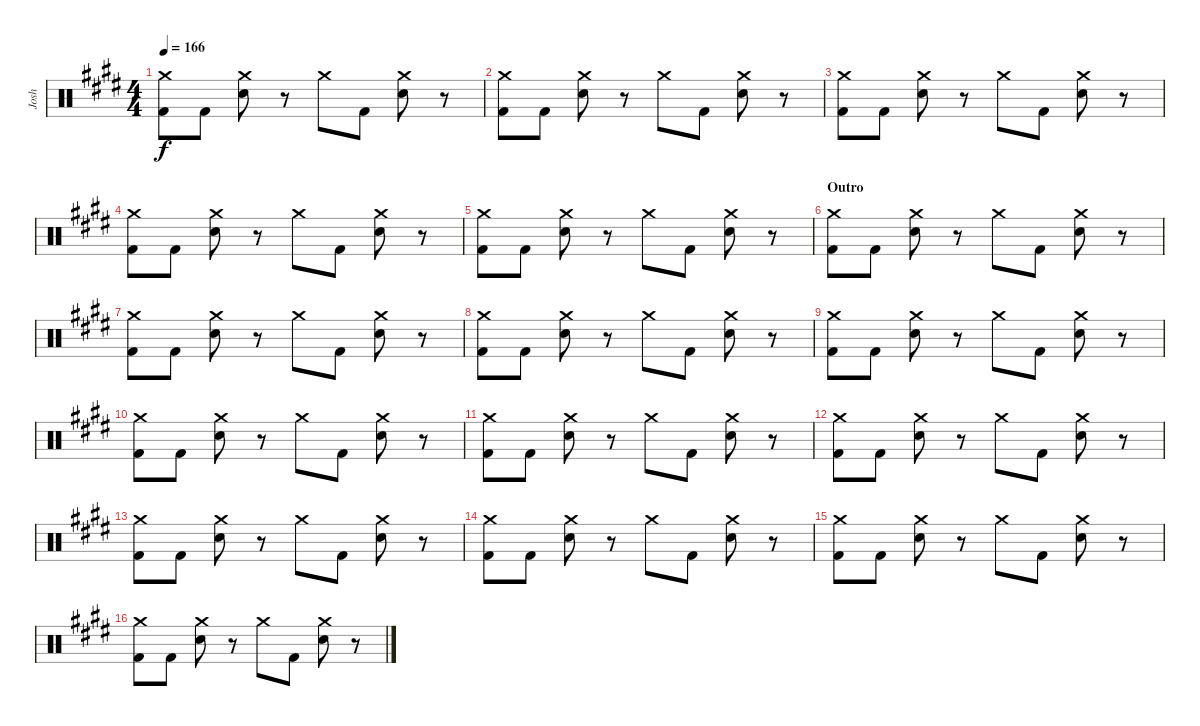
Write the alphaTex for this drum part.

\track ("Josh" "Josh") {instrument percussion}
\staff {score}
\articulation defaults
\ts (4 4)
\tempo 166
\clef neutral
\ks e
("Crash medium (hit)" "Kick (hit) 2").8{dy f} "Kick (hit) 2".8 ("Crash medium (hit)" "Electric Snare (hit)").8 r.8 "Crash medium (hit)".8 "Kick (hit) 2".8 ("Crash medium (hit)" "Electric Snare (hit)").8 r.8 |
("Crash medium (hit)" "Kick (hit) 2").8 "Kick (hit) 2".8 ("Crash medium (hit)" "Electric Snare (hit)").8 r.8 "Crash medium (hit)".8 "Kick (hit) 2".8 ("Crash medium (hit)" "Electric Snare (hit)").8 r.8 |
("Crash medium (hit)" "Kick (hit) 2").8 "Kick (hit) 2".8 ("Crash medium (hit)" "Electric Snare (hit)").8 r.8 "Crash medium (hit)".8 "Kick (hit) 2".8 ("Crash medium (hit)" "Electric Snare (hit)").8 r.8 |
("Crash medium (hit)" "Kick (hit) 2").8 "Kick (hit) 2".8 ("Crash medium (hit)" "Electric Snare (hit)").8 r.8 "Crash medium (hit)".8 "Kick (hit) 2".8 ("Crash medium (hit)" "Electric Snare (hit)").8 r.8 |
("Crash medium (hit)" "Kick (hit) 2").8 "Kick (hit) 2".8 ("Crash medium (hit)" "Electric Snare (hit)").8 r.8 "Crash medium (hit)".8 "Kick (hit) 2".8 ("Crash medium (hit)" "Electric Snare (hit)").8 r.8 |
\section ("" "Outro")
("Crash medium (hit)" "Kick (hit) 2").8 "Kick (hit) 2".8 ("Crash medium (hit)" "Electric Snare (hit)").8 r.8 "Crash medium (hit)".8 "Kick (hit) 2".8 ("Crash medium (hit)" "Electric Snare (hit)").8 r.8 |
("Crash medium (hit)" "Kick (hit) 2").8 "Kick (hit) 2".8 ("Crash medium (hit)" "Electric Snare (hit)").8 r.8 "Crash medium (hit)".8 "Kick (hit) 2".8 ("Crash medium (hit)" "Electric Snare (hit)").8 r.8 |
("Crash medium (hit)" "Kick (hit) 2").8 "Kick (hit) 2".8 ("Crash medium (hit)" "Electric Snare (hit)").8 r.8 "Crash medium (hit)".8 "Kick (hit) 2".8 ("Crash medium (hit)" "Electric Snare (hit)").8 r.8 |
("Crash medium (hit)" "Kick (hit) 2").8 "Kick (hit) 2".8 ("Crash medium (hit)" "Electric Snare (hit)").8 r.8 "Crash medium (hit)".8 "Kick (hit) 2".8 ("Crash medium (hit)" "Electric Snare (hit)").8 r.8 |
("Crash medium (hit)" "Kick (hit) 2").8 "Kick (hit) 2".8 ("Crash medium (hit)" "Electric Snare (hit)").8 r.8 "Crash medium (hit)".8 "Kick (hit) 2".8 ("Crash medium (hit)" "Electric Snare (hit)").8 r.8 |
("Crash medium (hit)" "Kick (hit) 2").8 "Kick (hit) 2".8 ("Crash medium (hit)" "Electric Snare (hit)").8 r.8 "Crash medium (hit)".8 "Kick (hit) 2".8 ("Crash medium (hit)" "Electric Snare (hit)").8 r.8 |
("Crash medium (hit)" "Kick (hit) 2").8 "Kick (hit) 2".8 ("Crash medium (hit)" "Electric Snare (hit)").8 r.8 "Crash medium (hit)".8 "Kick (hit) 2".8 ("Crash medium (hit)" "Electric Snare (hit)").8 r.8 |
("Crash medium (hit)" "Kick (hit) 2").8 "Kick (hit) 2".8 ("Crash medium (hit)" "Electric Snare (hit)").8 r.8 "Crash medium (hit)".8 "Kick (hit) 2".8 ("Crash medium (hit)" "Electric Snare (hit)").8 r.8 |
("Crash medium (hit)" "Kick (hit) 2").8 "Kick (hit) 2".8 ("Crash medium (hit)" "Electric Snare (hit)").8 r.8 "Crash medium (hit)".8 "Kick (hit) 2".8 ("Crash medium (hit)" "Electric Snare (hit)").8 r.8 |
("Crash medium (hit)" "Kick (hit) 2").8 "Kick (hit) 2".8 ("Crash medium (hit)" "Electric Snare (hit)").8 r.8 "Crash medium (hit)".8 "Kick (hit) 2".8 ("Crash medium (hit)" "Electric Snare (hit)").8 r.8 |
("Crash medium (hit)" "Kick (hit) 2").8 "Kick (hit) 2".8 ("Crash medium (hit)" "Electric Snare (hit)").8 r.8 "Crash medium (hit)".8 "Kick (hit) 2".8 ("Crash medium (hit)" "Electric Snare (hit)").8 r.8
